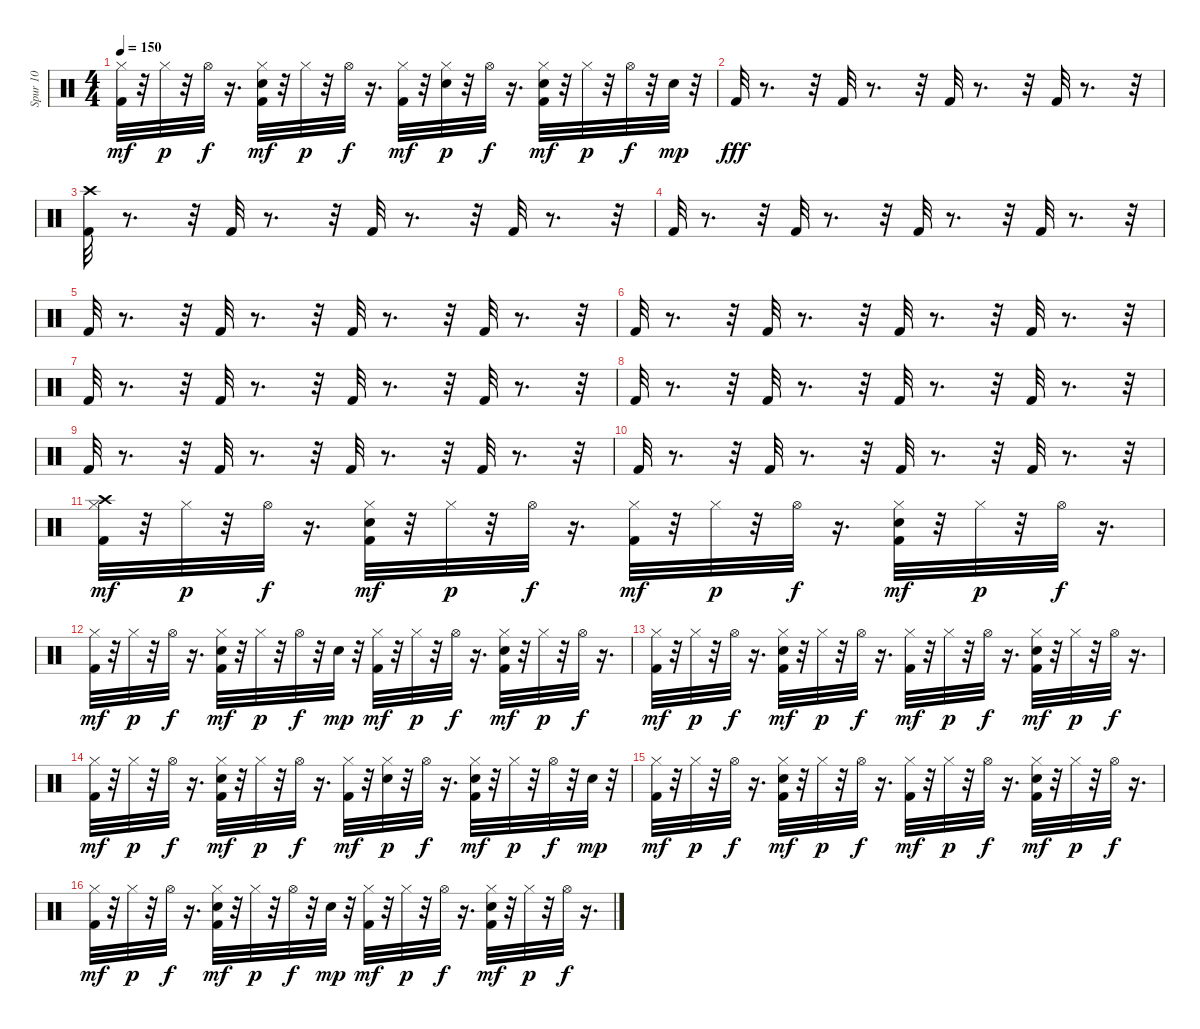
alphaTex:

\track ("Spur 10" "Spur 10") {instrument percussion}
\staff {score}
\articulation defaults
\ts (4 4)
\tempo 150
\clef neutral
\ks c
("Kick (hit) 2" "Hi-Hat (closed)").32{dy mf} r.32 "Hi-Hat (closed)".32{dy p} r.32 "Hi-Hat (open)".32{dy f} r.16{d} ("Kick (hit) 2" "Snare (hit) 2" "Hi-Hat (closed)").32{dy mf} r.32 "Hi-Hat (closed)".32{dy p} r.32 "Hi-Hat (open)".32{dy f} r.16{d} ("Kick (hit) 2" "Hi-Hat (closed)").32{dy mf} r.32 ("Snare (hit) 2" "Hi-Hat (closed)").32{dy p} r.32 "Hi-Hat (open)".32{dy f} r.16{d} ("Kick (hit) 2" "Snare (hit) 2" "Hi-Hat (closed)").32{dy mf} r.32 "Hi-Hat (closed)".32{dy p} r.32 "Hi-Hat (open)".32{dy f} r.32 "Snare (hit) 2".32{dy mp} r.32 |
"Kick (hit) 2".32{dy fff} r.8{d} r.32 "Kick (hit) 2".32 r.8{d} r.32 "Kick (hit) 2".32 r.8{d} r.32 "Kick (hit) 2".32 r.8{d} r.32 |
("Crash high (hit)" "Kick (hit) 2").32 r.8{d} r.32 "Kick (hit) 2".32 r.8{d} r.32 "Kick (hit) 2".32 r.8{d} r.32 "Kick (hit) 2".32 r.8{d} r.32 |
"Kick (hit) 2".32 r.8{d} r.32 "Kick (hit) 2".32 r.8{d} r.32 "Kick (hit) 2".32 r.8{d} r.32 "Kick (hit) 2".32 r.8{d} r.32 |
"Kick (hit) 2".32 r.8{d} r.32 "Kick (hit) 2".32 r.8{d} r.32 "Kick (hit) 2".32 r.8{d} r.32 "Kick (hit) 2".32 r.8{d} r.32 |
"Kick (hit) 2".32 r.8{d} r.32 "Kick (hit) 2".32 r.8{d} r.32 "Kick (hit) 2".32 r.8{d} r.32 "Kick (hit) 2".32 r.8{d} r.32 |
"Kick (hit) 2".32 r.8{d} r.32 "Kick (hit) 2".32 r.8{d} r.32 "Kick (hit) 2".32 r.8{d} r.32 "Kick (hit) 2".32 r.8{d} r.32 |
"Kick (hit) 2".32 r.8{d} r.32 "Kick (hit) 2".32 r.8{d} r.32 "Kick (hit) 2".32 r.8{d} r.32 "Kick (hit) 2".32 r.8{d} r.32 |
"Kick (hit) 2".32 r.8{d} r.32 "Kick (hit) 2".32 r.8{d} r.32 "Kick (hit) 2".32 r.8{d} r.32 "Kick (hit) 2".32 r.8{d} r.32 |
"Kick (hit) 2".32 r.8{d} r.32 "Kick (hit) 2".32 r.8{d} r.32 "Kick (hit) 2".32 r.8{d} r.32 "Kick (hit) 2".32 r.8{d} r.32 |
("Crash high (hit)" "Kick (hit) 2" "Hi-Hat (closed)").32{dy mf} r.32 "Hi-Hat (closed)".32{dy p} r.32 "Hi-Hat (open)".32{dy f} r.16{d} ("Kick (hit) 2" "Snare (hit) 2" "Hi-Hat (closed)").32{dy mf} r.32 "Hi-Hat (closed)".32{dy p} r.32 "Hi-Hat (open)".32{dy f} r.16{d} ("Kick (hit) 2" "Hi-Hat (closed)").32{dy mf} r.32 "Hi-Hat (closed)".32{dy p} r.32 "Hi-Hat (open)".32{dy f} r.16{d} ("Kick (hit) 2" "Snare (hit) 2" "Hi-Hat (closed)").32{dy mf} r.32 "Hi-Hat (closed)".32{dy p} r.32 "Hi-Hat (open)".32{dy f} r.16{d} |
("Kick (hit) 2" "Hi-Hat (closed)").32{dy mf} r.32 "Hi-Hat (closed)".32{dy p} r.32 "Hi-Hat (open)".32{dy f} r.16{d} ("Kick (hit) 2" "Snare (hit) 2" "Hi-Hat (closed)").32{dy mf} r.32 "Hi-Hat (closed)".32{dy p} r.32 "Hi-Hat (open)".32{dy f} r.32 "Snare (hit) 2".32{dy mp} r.32 ("Kick (hit) 2" "Hi-Hat (closed)").32{dy mf} r.32 "Hi-Hat (closed)".32{dy p} r.32 "Hi-Hat (open)".32{dy f} r.16{d} ("Kick (hit) 2" "Snare (hit) 2" "Hi-Hat (closed)").32{dy mf} r.32 "Hi-Hat (closed)".32{dy p} r.32 "Hi-Hat (open)".32{dy f} r.16{d} |
("Kick (hit) 2" "Hi-Hat (closed)").32{dy mf} r.32 "Hi-Hat (closed)".32{dy p} r.32 "Hi-Hat (open)".32{dy f} r.16{d} ("Kick (hit) 2" "Snare (hit) 2" "Hi-Hat (closed)").32{dy mf} r.32 "Hi-Hat (closed)".32{dy p} r.32 "Hi-Hat (open)".32{dy f} r.16{d} ("Kick (hit) 2" "Hi-Hat (closed)").32{dy mf} r.32 "Hi-Hat (closed)".32{dy p} r.32 "Hi-Hat (open)".32{dy f} r.16{d} ("Kick (hit) 2" "Snare (hit) 2" "Hi-Hat (closed)").32{dy mf} r.32 "Hi-Hat (closed)".32{dy p} r.32 "Hi-Hat (open)".32{dy f} r.16{d} |
("Kick (hit) 2" "Hi-Hat (closed)").32{dy mf} r.32 "Hi-Hat (closed)".32{dy p} r.32 "Hi-Hat (open)".32{dy f} r.16{d} ("Kick (hit) 2" "Snare (hit) 2" "Hi-Hat (closed)").32{dy mf} r.32 "Hi-Hat (closed)".32{dy p} r.32 "Hi-Hat (open)".32{dy f} r.16{d} ("Kick (hit) 2" "Hi-Hat (closed)").32{dy mf} r.32 ("Snare (hit) 2" "Hi-Hat (closed)").32{dy p} r.32 "Hi-Hat (open)".32{dy f} r.16{d} ("Kick (hit) 2" "Snare (hit) 2" "Hi-Hat (closed)").32{dy mf} r.32 "Hi-Hat (closed)".32{dy p} r.32 "Hi-Hat (open)".32{dy f} r.32 "Snare (hit) 2".32{dy mp} r.32 |
("Kick (hit) 2" "Hi-Hat (closed)").32{dy mf} r.32 "Hi-Hat (closed)".32{dy p} r.32 "Hi-Hat (open)".32{dy f} r.16{d} ("Kick (hit) 2" "Snare (hit) 2" "Hi-Hat (closed)").32{dy mf} r.32 "Hi-Hat (closed)".32{dy p} r.32 "Hi-Hat (open)".32{dy f} r.16{d} ("Kick (hit) 2" "Hi-Hat (closed)").32{dy mf} r.32 "Hi-Hat (closed)".32{dy p} r.32 "Hi-Hat (open)".32{dy f} r.16{d} ("Kick (hit) 2" "Snare (hit) 2" "Hi-Hat (closed)").32{dy mf} r.32 "Hi-Hat (closed)".32{dy p} r.32 "Hi-Hat (open)".32{dy f} r.16{d} |
("Kick (hit) 2" "Hi-Hat (closed)").32{dy mf} r.32 "Hi-Hat (closed)".32{dy p} r.32 "Hi-Hat (open)".32{dy f} r.16{d} ("Kick (hit) 2" "Snare (hit) 2" "Hi-Hat (closed)").32{dy mf} r.32 "Hi-Hat (closed)".32{dy p} r.32 "Hi-Hat (open)".32{dy f} r.32 "Snare (hit) 2".32{dy mp} r.32 ("Kick (hit) 2" "Hi-Hat (closed)").32{dy mf} r.32 "Hi-Hat (closed)".32{dy p} r.32 "Hi-Hat (open)".32{dy f} r.16{d} ("Kick (hit) 2" "Snare (hit) 2" "Hi-Hat (closed)").32{dy mf} r.32 "Hi-Hat (closed)".32{dy p} r.32 "Hi-Hat (open)".32{dy f} r.16{d}
